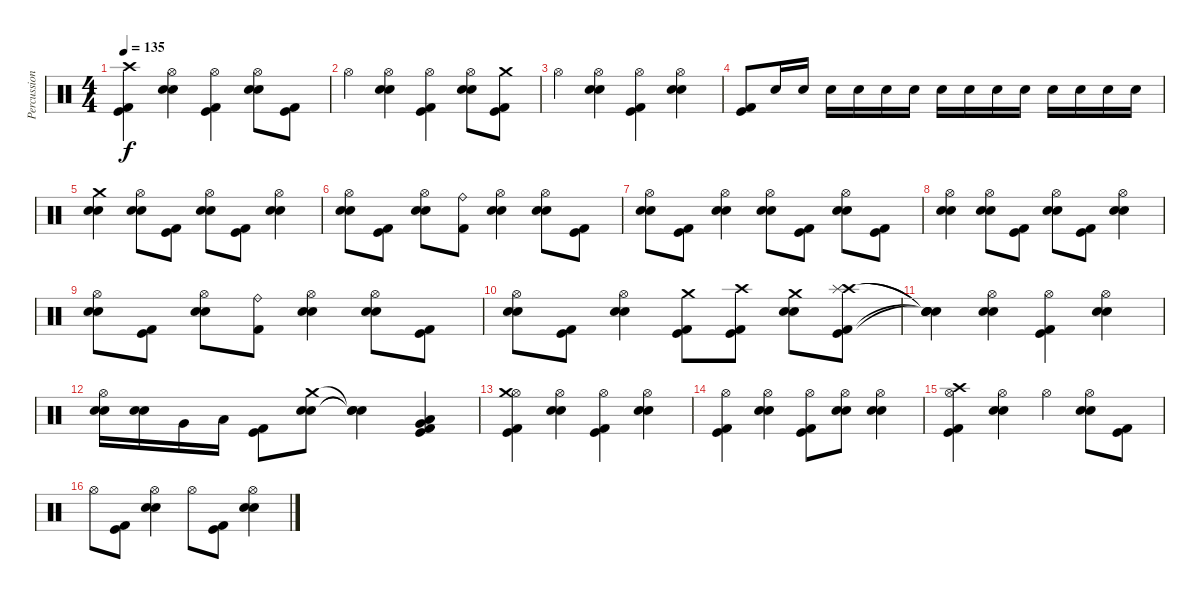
\track ("Percussion" "Percussion") {instrument percussion}
\staff {score}
\articulation defaults
\ts (4 4)
\tempo 135
\clef neutral
\ks c
("Crash high (hit)" "Kick (hit)" "Kick (hit) 2").4{dy f} ("Hi-Hat (open)" "Electric Snare (hit)" "Metronome (bell)").4 ("Hi-Hat (open)" "Kick (hit)" "Kick (hit) 2").4 ("Hi-Hat (open)" "Electric Snare (hit)" "Metronome (bell)").8 ("Kick (hit)" "Kick (hit) 2").8 |
"Hi-Hat (open)".4 ("Hi-Hat (open)" "Electric Snare (hit)" "Metronome (bell)").4 ("Hi-Hat (open)" "Kick (hit)" "Kick (hit) 2").4 ("Hi-Hat (open)" "Electric Snare (hit)" "Metronome (bell)").8 ("Crash medium (hit)" "Kick (hit)" "Kick (hit) 2").8 |
"Hi-Hat (open)".4 ("Hi-Hat (open)" "Electric Snare (hit)" "Metronome (bell)").4 ("Hi-Hat (open)" "Kick (hit)" "Kick (hit) 2").4 ("Hi-Hat (open)" "Electric Snare (hit)" "Metronome (bell)").4 |
("Kick (hit)" "Kick (hit) 2").8 "Metronome (bell)".16 "Metronome (bell)".16 "Metronome (bell)".16 "Metronome (bell)".16 "Metronome (bell)".16 "Metronome (bell)".16 "Metronome (bell)".16 "Metronome (bell)".16 "Metronome (bell)".16 "Metronome (bell)".16 "Metronome (bell)".16 "Metronome (bell)".16 "Metronome (bell)".16 "Metronome (bell)".16 |
("Crash medium (hit)" "Electric Snare (hit)" "Metronome (bell)").4 ("Hi-Hat (open)" "Electric Snare (hit)" "Metronome (bell)").8 ("Kick (hit)" "Kick (hit) 2").8 ("Hi-Hat (open)" "Electric Snare (hit)" "Metronome (bell)").8 ("Kick (hit)" "Kick (hit) 2").8 ("Hi-Hat (open)" "Electric Snare (hit)" "Metronome (bell)").4 |
("Hi-Hat (open)" "Electric Snare (hit)" "Metronome (bell)").8 ("Kick (hit)" "Kick (hit) 2").8 ("Hi-Hat (open)" "Electric Snare (hit)" "Metronome (bell)").8 ("Ride (bell)" "Kick (hit) 2").8 ("Hi-Hat (open)" "Electric Snare (hit)" "Metronome (bell)").4 ("Hi-Hat (open)" "Electric Snare (hit)" "Metronome (bell)").8 ("Kick (hit)" "Kick (hit) 2").8 |
("Hi-Hat (open)" "Electric Snare (hit)" "Metronome (bell)").8 ("Kick (hit)" "Kick (hit) 2").8 ("Hi-Hat (open)" "Electric Snare (hit)" "Metronome (bell)").4 ("Hi-Hat (open)" "Electric Snare (hit)" "Metronome (bell)").8 ("Kick (hit)" "Kick (hit) 2").8 ("Hi-Hat (open)" "Electric Snare (hit)" "Metronome (bell)").8 ("Kick (hit)" "Kick (hit) 2").8 |
("Hi-Hat (open)" "Electric Snare (hit)" "Metronome (bell)").4 ("Hi-Hat (open)" "Electric Snare (hit)" "Metronome (bell)").8 ("Kick (hit)" "Kick (hit) 2").8 ("Hi-Hat (open)" "Electric Snare (hit)" "Metronome (bell)").8 ("Kick (hit)" "Kick (hit) 2").8 ("Hi-Hat (open)" "Electric Snare (hit)" "Metronome (bell)").4 |
("Hi-Hat (open)" "Electric Snare (hit)" "Metronome (bell)").8 ("Kick (hit)" "Kick (hit) 2").8 ("Hi-Hat (open)" "Electric Snare (hit)" "Metronome (bell)").8 ("Ride (bell)" "Kick (hit) 2").8 ("Hi-Hat (open)" "Electric Snare (hit)" "Metronome (bell)").4 ("Hi-Hat (open)" "Electric Snare (hit)" "Metronome (bell)").8 ("Kick (hit)" "Kick (hit) 2").8 |
("Hi-Hat (open)" "Electric Snare (hit)" "Metronome (bell)").8 ("Kick (hit)" "Kick (hit) 2").8 ("Hi-Hat (open)" "Electric Snare (hit)" "Metronome (bell)").4 ("Crash medium (hit)" "Kick (hit)" "Kick (hit) 2").8 ("Crash high (hit)" "Kick (hit)" "Kick (hit) 2").8 ("Crash medium (hit)" "Electric Snare (hit)" "Metronome (bell)").8 ("Crash high (hit)" "Splash (hit)" "Kick (hit)" "Kick (hit) 2").8 |
("Snare (hit)"{t} "Snare (hit)"{t} "Snare (hit)"{t} "Snare (hit)"{t}).4 ("Hi-Hat (open)" "Electric Snare (hit)" "Metronome (bell)").4 ("Hi-Hat (open)" "Kick (hit)" "Kick (hit) 2").4 ("Hi-Hat (open)" "Electric Snare (hit)" "Metronome (bell)").4 |
("Hi-Hat (open)" "Electric Snare (hit)" "Metronome (bell)").16 ("Electric Snare (hit)" "Metronome (bell)").16 "Very Low Tom (hit)".16 "Low Floor Tom (hit)".16 ("Kick (hit)" "Kick (hit) 2").8 ("Crash medium (hit)" "Electric Snare (hit)" "Metronome (bell)").8 ("Snare (hit)"{t} "Snare (hit)"{t} "Snare (hit)"{t}).4 ("Very Low Tom (hit)" "Low Floor Tom (hit)" "Kick (hit)" "Kick (hit) 2").4 |
("Hi-Hat (open)" "Crash medium (hit)" "Kick (hit)" "Kick (hit) 2").4 ("Hi-Hat (open)" "Electric Snare (hit)" "Metronome (bell)").4 ("Hi-Hat (open)" "Kick (hit)" "Kick (hit) 2").4 ("Hi-Hat (open)" "Electric Snare (hit)" "Metronome (bell)").4 |
("Hi-Hat (open)" "Kick (hit)" "Kick (hit) 2").4 ("Hi-Hat (open)" "Electric Snare (hit)" "Metronome (bell)").4 ("Hi-Hat (open)" "Kick (hit)" "Kick (hit) 2").8 ("Hi-Hat (open)" "Electric Snare (hit)" "Metronome (bell)").8 ("Hi-Hat (open)" "Electric Snare (hit)" "Metronome (bell)").4 |
("Hi-Hat (open)" "Crash high (hit)" "Kick (hit)" "Kick (hit) 2").4 ("Hi-Hat (open)" "Electric Snare (hit)" "Metronome (bell)").4 "Hi-Hat (open)".4 ("Hi-Hat (open)" "Electric Snare (hit)" "Metronome (bell)").8 ("Kick (hit)" "Kick (hit) 2").8 |
"Hi-Hat (open)".8 ("Kick (hit)" "Kick (hit) 2").8 ("Hi-Hat (open)" "Electric Snare (hit)" "Metronome (bell)").4 "Hi-Hat (open)".8 ("Kick (hit)" "Kick (hit) 2").8 ("Hi-Hat (open)" "Electric Snare (hit)" "Metronome (bell)").4
